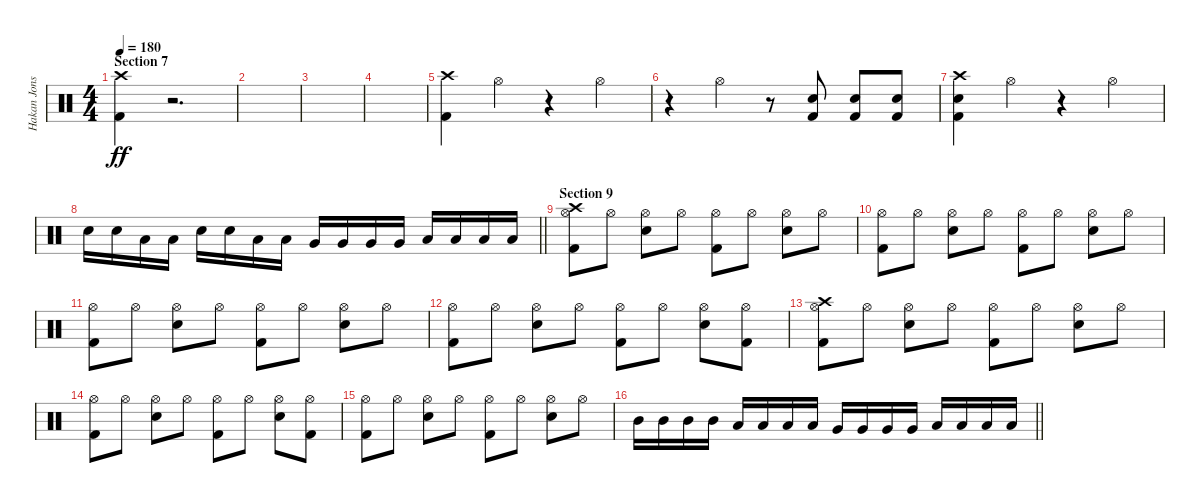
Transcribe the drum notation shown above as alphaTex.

\track ("Hakan Jonsson" "Hakan Jons") {instrument percussion}
\staff {score}
\articulation defaults
\ts (4 4)
\section ("" "Section 7")
\tempo 180
\clef neutral
\ks c
("Crash high (hit)" "Kick (hit) 2").4{dy ff} r.2{d} |
|
|
|
("Crash high (hit)" "Kick (hit) 2").4 "Hi-Hat (open)".4 r.4 "Hi-Hat (open)".4 |
r.4 "Hi-Hat (open)".4 r.8 ("Electric Snare (hit)" "Kick (hit) 2").8 ("Electric Snare (hit)" "Kick (hit) 2").8 ("Electric Snare (hit)" "Kick (hit) 2").8 |
("Crash high (hit)" "Electric Snare (hit)" "Kick (hit) 2").4 "Hi-Hat (open)".4 r.4 "Hi-Hat (open)".4 |
\barLineRight lightlight "Electric Snare (hit)".16 "Electric Snare (hit)".16 "Low Tom (hit)".16 "Low Tom (hit)".16 "Electric Snare (hit)".16 "Electric Snare (hit)".16 "Low Tom (hit)".16 "Low Tom (hit)".16 "Very Low Tom (hit)".16 "Very Low Tom (hit)".16 "Very Low Tom (hit)".16 "Very Low Tom (hit)".16 "Low Floor Tom (hit)".16 "Low Floor Tom (hit)".16 "Low Floor Tom (hit)".16 "Low Floor Tom (hit)".16
|
\section ("" "Section 9")
("Crash high (hit)" "Hi-Hat (open)" "Kick (hit) 2").8 "Hi-Hat (open)".8 ("Hi-Hat (open)" "Electric Snare (hit)").8 "Hi-Hat (open)".8 ("Hi-Hat (open)" "Kick (hit) 2").8 "Hi-Hat (open)".8 ("Hi-Hat (open)" "Electric Snare (hit)").8 "Hi-Hat (open)".8 |
("Hi-Hat (open)" "Kick (hit) 2").8 "Hi-Hat (open)".8 ("Hi-Hat (open)" "Electric Snare (hit)").8 "Hi-Hat (open)".8 ("Hi-Hat (open)" "Kick (hit) 2").8 "Hi-Hat (open)".8 ("Hi-Hat (open)" "Electric Snare (hit)").8 "Hi-Hat (open)".8 |
("Hi-Hat (open)" "Kick (hit) 2").8 "Hi-Hat (open)".8 ("Hi-Hat (open)" "Electric Snare (hit)").8 "Hi-Hat (open)".8 ("Hi-Hat (open)" "Kick (hit) 2").8 "Hi-Hat (open)".8 ("Hi-Hat (open)" "Electric Snare (hit)").8 "Hi-Hat (open)".8 |
("Hi-Hat (open)" "Kick (hit) 2").8 "Hi-Hat (open)".8 ("Hi-Hat (open)" "Electric Snare (hit)").8 "Hi-Hat (open)".8 ("Hi-Hat (open)" "Kick (hit) 2").8 "Hi-Hat (open)".8 ("Hi-Hat (open)" "Electric Snare (hit)").8 ("Hi-Hat (open)" "Kick (hit) 2").8 |
("Crash high (hit)" "Hi-Hat (open)" "Kick (hit) 2").8 "Hi-Hat (open)".8 ("Hi-Hat (open)" "Electric Snare (hit)").8 "Hi-Hat (open)".8 ("Hi-Hat (open)" "Kick (hit) 2").8 "Hi-Hat (open)".8 ("Hi-Hat (open)" "Electric Snare (hit)").8 "Hi-Hat (open)".8 |
("Hi-Hat (open)" "Kick (hit) 2").8 "Hi-Hat (open)".8 ("Hi-Hat (open)" "Electric Snare (hit)").8 "Hi-Hat (open)".8 ("Hi-Hat (open)" "Kick (hit) 2").8 "Hi-Hat (open)".8 ("Hi-Hat (open)" "Electric Snare (hit)").8 ("Hi-Hat (open)" "Kick (hit) 2").8 |
("Hi-Hat (open)" "Kick (hit) 2").8 "Hi-Hat (open)".8 ("Hi-Hat (open)" "Electric Snare (hit)").8 "Hi-Hat (open)".8 ("Hi-Hat (open)" "Kick (hit) 2").8 "Hi-Hat (open)".8 ("Hi-Hat (open)" "Electric Snare (hit)").8 "Hi-Hat (open)".8 |
\barLineRight lightlight "Mid Tom (hit)".16 "Mid Tom (hit)".16 "Mid Tom (hit)".16 "Mid Tom (hit)".16 "Low Tom (hit)".16 "Low Tom (hit)".16 "Low Tom (hit)".16 "Low Tom (hit)".16 "Very Low Tom (hit)".16 "Very Low Tom (hit)".16 "Very Low Tom (hit)".16 "Very Low Tom (hit)".16 "Low Floor Tom (hit)".16 "Low Floor Tom (hit)".16 "Low Floor Tom (hit)".16 "Low Floor Tom (hit)".16
